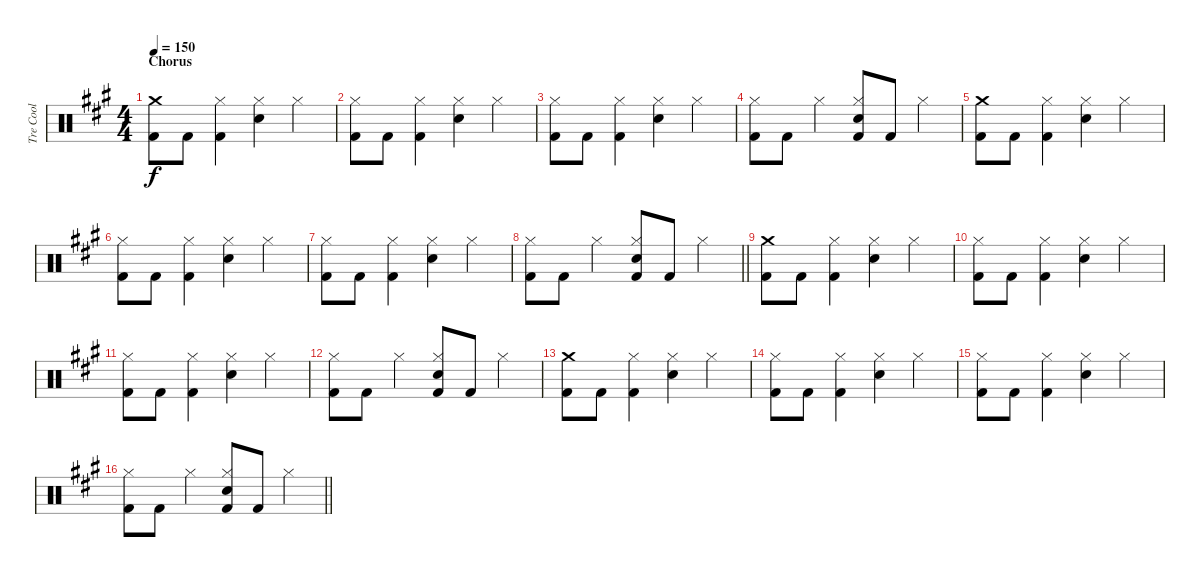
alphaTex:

\track ("Tre Cool" "Tre Cool") {instrument percussion}
\staff {score}
\articulation defaults
\ts (4 4)
\section ("" "Chorus")
\tempo 150
\clef neutral
\ks a
("Crash medium (hit)" "Kick (hit) 2").8{dy f} "Kick (hit) 2".8 ("Hi-Hat (closed)" "Kick (hit) 2").4 ("Hi-Hat (closed)" "Snare (hit) 2").4 "Hi-Hat (closed)".4 |
("Hi-Hat (closed)" "Kick (hit) 2").8 "Kick (hit) 2".8 ("Hi-Hat (closed)" "Kick (hit) 2").4 ("Hi-Hat (closed)" "Snare (hit) 2").4 "Hi-Hat (closed)".4 |
("Hi-Hat (closed)" "Kick (hit) 2").8 "Kick (hit) 2".8 ("Hi-Hat (closed)" "Kick (hit) 2").4 ("Hi-Hat (closed)" "Snare (hit) 2").4 "Hi-Hat (closed)".4 |
("Hi-Hat (closed)" "Kick (hit) 2").8 "Kick (hit) 2".8 "Hi-Hat (closed)".4 ("Hi-Hat (closed)" "Snare (hit) 2" "Kick (hit) 2").8 "Kick (hit) 2".8 "Hi-Hat (closed)".4 |
("Crash medium (hit)" "Kick (hit) 2").8 "Kick (hit) 2".8 ("Hi-Hat (closed)" "Kick (hit) 2").4 ("Hi-Hat (closed)" "Snare (hit) 2").4 "Hi-Hat (closed)".4 |
("Hi-Hat (closed)" "Kick (hit) 2").8 "Kick (hit) 2".8 ("Hi-Hat (closed)" "Kick (hit) 2").4 ("Hi-Hat (closed)" "Snare (hit) 2").4 "Hi-Hat (closed)".4 |
("Hi-Hat (closed)" "Kick (hit) 2").8 "Kick (hit) 2".8 ("Hi-Hat (closed)" "Kick (hit) 2").4 ("Hi-Hat (closed)" "Snare (hit) 2").4 "Hi-Hat (closed)".4 |
\barLineRight lightlight
("Hi-Hat (closed)" "Kick (hit) 2").8 "Kick (hit) 2".8 "Hi-Hat (closed)".4 ("Hi-Hat (closed)" "Snare (hit) 2" "Kick (hit) 2").8 "Kick (hit) 2".8 "Hi-Hat (closed)".4 |
("Crash medium (hit)" "Kick (hit) 2").8 "Kick (hit) 2".8 ("Hi-Hat (closed)" "Kick (hit) 2").4 ("Hi-Hat (closed)" "Snare (hit) 2").4 "Hi-Hat (closed)".4 |
("Hi-Hat (closed)" "Kick (hit) 2").8 "Kick (hit) 2".8 ("Hi-Hat (closed)" "Kick (hit) 2").4 ("Hi-Hat (closed)" "Snare (hit) 2").4 "Hi-Hat (closed)".4 |
("Hi-Hat (closed)" "Kick (hit) 2").8 "Kick (hit) 2".8 ("Hi-Hat (closed)" "Kick (hit) 2").4 ("Hi-Hat (closed)" "Snare (hit) 2").4 "Hi-Hat (closed)".4 |
("Hi-Hat (closed)" "Kick (hit) 2").8 "Kick (hit) 2".8 "Hi-Hat (closed)".4 ("Hi-Hat (closed)" "Snare (hit) 2" "Kick (hit) 2").8 "Kick (hit) 2".8 "Hi-Hat (closed)".4 |
("Crash medium (hit)" "Kick (hit) 2").8 "Kick (hit) 2".8 ("Hi-Hat (closed)" "Kick (hit) 2").4 ("Hi-Hat (closed)" "Snare (hit) 2").4 "Hi-Hat (closed)".4 |
("Hi-Hat (closed)" "Kick (hit) 2").8 "Kick (hit) 2".8 ("Hi-Hat (closed)" "Kick (hit) 2").4 ("Hi-Hat (closed)" "Snare (hit) 2").4 "Hi-Hat (closed)".4 |
("Hi-Hat (closed)" "Kick (hit) 2").8 "Kick (hit) 2".8 ("Hi-Hat (closed)" "Kick (hit) 2").4 ("Hi-Hat (closed)" "Snare (hit) 2").4 "Hi-Hat (closed)".4 |
\barLineRight lightlight
("Hi-Hat (closed)" "Kick (hit) 2").8 "Kick (hit) 2".8 "Hi-Hat (closed)".4 ("Hi-Hat (closed)" "Snare (hit) 2" "Kick (hit) 2").8 "Kick (hit) 2".8 "Hi-Hat (closed)".4
